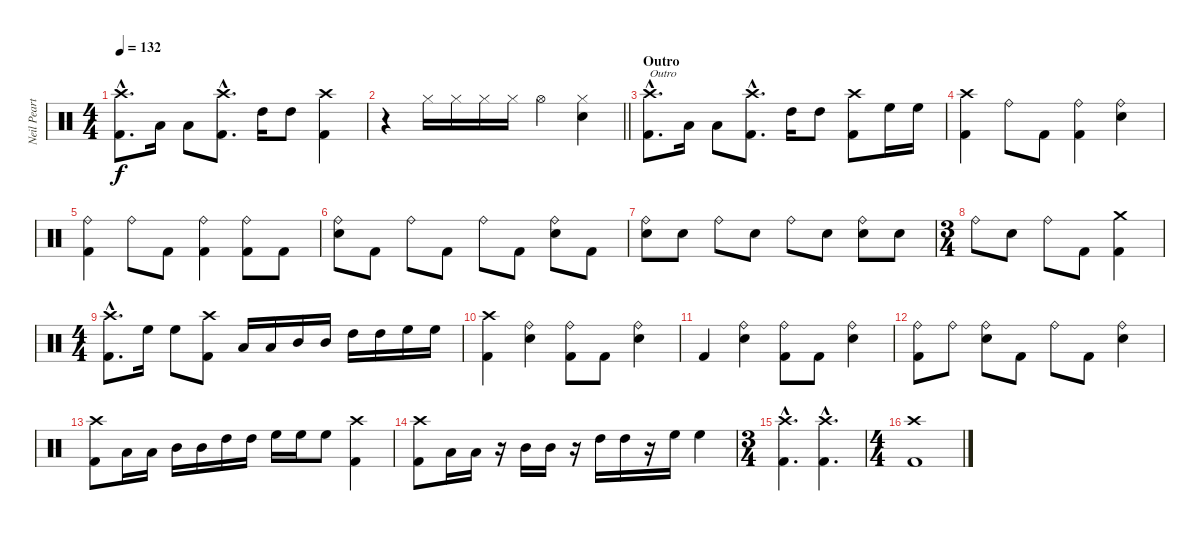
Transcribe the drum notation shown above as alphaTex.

\track ("Neil Peart" "Neil Peart") {instrument percussion}
\staff {score}
\articulation defaults
\ts (4 4)
\tempo 132
\clef neutral
\ks c
("Crash high (hit)"{hac} "Kick (hit) 2"{hac}).8{d dy f} "Low Tom (hit)".16 "Low Tom (hit)".8 ("Crash high (hit)"{hac} "Kick (hit) 2"{hac}).8{d} "High Tom (hit)".16 "High Tom (hit)".8 ("Crash high (hit)" "Kick (hit) 2").4 |
\barLineRight lightlight
r.4 "Hi-Hat (closed)".16 "Hi-Hat (closed)".16 "Hi-Hat (closed)".16 "Hi-Hat (closed)".16 "Hi-Hat (open)".4 ("Hi-Hat (closed)" "Electric Snare (hit)").4 |
\section ("" "Outro")
("Crash high (hit)"{hac} "Kick (hit) 2"{hac}).8{d txt "Outro"} "Low Tom (hit)".16 "Low Tom (hit)".8 ("Crash high (hit)"{hac} "Kick (hit) 2"{hac}).8{d} "High Tom (hit)".16 "High Tom (hit)".8 ("Crash high (hit)" "Kick (hit) 2").8 "High Floor Tom (hit)".16 "High Floor Tom (hit)".16 |
("Crash high (hit)" "Kick (hit) 2").4 "Ride (bell)".8 "Kick (hit) 2".8 ("Ride (bell)" "Kick (hit) 2").4 ("Ride (bell)" "Electric Snare (hit)").4 |
("Ride (bell)" "Kick (hit) 2").4 "Ride (bell)".8 "Kick (hit) 2".8 ("Ride (bell)" "Kick (hit) 2").4 ("Ride (bell)" "Kick (hit) 2").8 "Kick (hit) 2".8 |
("Ride (bell)" "Electric Snare (hit)").8 "Kick (hit) 2".8 "Ride (bell)".8 "Kick (hit) 2".8 "Ride (bell)".8 "Kick (hit) 2".8 ("Ride (bell)" "Electric Snare (hit)").8 "Kick (hit) 2".8 |
("Ride (bell)" "Electric Snare (hit)").8 "Electric Snare (hit)".8 "Ride (bell)".8 "Electric Snare (hit)".8 "Ride (bell)".8 "Electric Snare (hit)".8 ("Ride (bell)" "Electric Snare (hit)").8 "Electric Snare (hit)".8 |
\ts (3 4)
"Ride (bell)".8 "Electric Snare (hit)".8 "Ride (bell)".8 "Kick (hit) 2".8 ("Crash medium (hit)" "Kick (hit) 2").4 |
\ts (4 4)
("Crash high (hit)"{hac} "Kick (hit) 2"{hac}).8{d} "High Floor Tom (hit)".16 "High Floor Tom (hit)".8 ("Crash high (hit)" "Kick (hit) 2").8 "Low Tom (hit)".16 "Low Tom (hit)".16 "Mid Tom (hit)".16 "Mid Tom (hit)".16 "High Tom (hit)".16 "High Tom (hit)".16 "High Floor Tom (hit)".16 "High Floor Tom (hit)".16 |
("Crash high (hit)" "Kick (hit) 2").4 ("Ride (bell)" "Electric Snare (hit)").4 ("Ride (bell)" "Kick (hit) 2").8 "Kick (hit) 2".8 ("Ride (bell)" "Electric Snare (hit)").4 |
"Kick (hit) 2".4 ("Ride (bell)" "Electric Snare (hit)").4 ("Ride (bell)" "Kick (hit) 2").8 "Kick (hit) 2".8 ("Ride (bell)" "Electric Snare (hit)").4 |
("Ride (bell)" "Kick (hit) 2").8 "Ride (bell)".8 ("Ride (bell)" "Electric Snare (hit)").8 "Kick (hit) 2".8 "Ride (bell)".8 "Kick (hit) 2".8 ("Ride (bell)" "Electric Snare (hit)").4 |
("Crash high (hit)" "Kick (hit) 2").8 "Low Tom (hit)".16 "Low Tom (hit)".16 "Mid Tom (hit)".16 "Mid Tom (hit)".16 "High Tom (hit)".16 "High Tom (hit)".16 "High Floor Tom (hit)".16 "High Floor Tom (hit)".16 "High Floor Tom (hit)".8 ("Crash high (hit)" "Kick (hit) 2").4 |
("Crash high (hit)" "Kick (hit) 2").8 "Low Tom (hit)".16 "Low Tom (hit)".16 r.16 "Mid Tom (hit)".16 "Mid Tom (hit)".16 r.16 "High Tom (hit)".16 "High Tom (hit)".16 r.16 "High Floor Tom (hit)".16 "High Floor Tom (hit)".4 |
\ts (3 4)
("Crash high (hit)"{hac} "Kick (hit) 2"{hac}).4{d} ("Crash high (hit)"{hac} "Kick (hit) 2"{hac}).4{d} |
\ts (4 4)
("Crash high (hit)" "Kick (hit) 2").1
